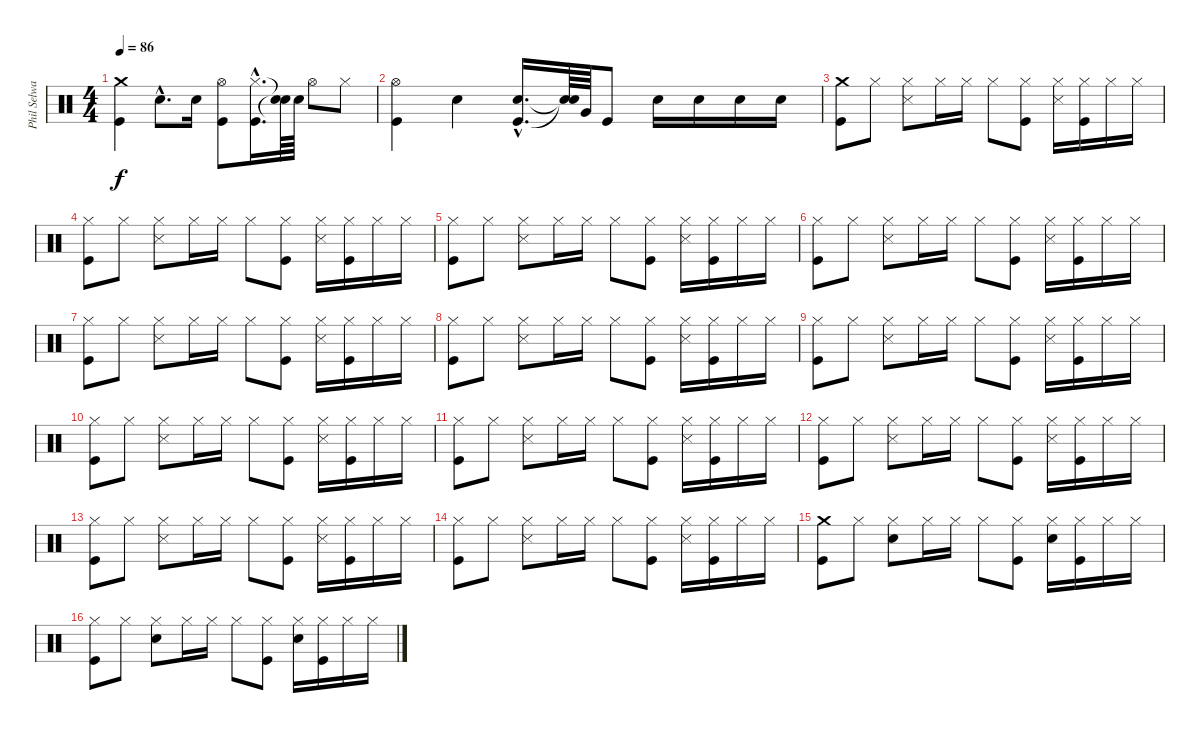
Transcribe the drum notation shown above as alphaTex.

\track ("Phil Selway" "Phil Selwa") {instrument percussion}
\staff {score}
\articulation defaults
\ts (4 4)
\tempo 86
\clef neutral
\ks c
("Kick (hit)" "Crash medium (hit)").4{dy f} "Electric Snare (hit)"{hac}.8{d} "Electric Snare (hit)".16 ("Kick (hit)" "Hi-Hat (open)").8 ("Kick (hit)"{hac} "Hi-Hat (closed)"{hac}).16{d} ("Snare (hit)"{t} "Snare (hit)"{t}).64 "Electric Snare (hit)".64 "Hi-Hat (open)".8 "Hi-Hat (closed)".8 |
("Kick (hit)" "Hi-Hat (open)").4 "Electric Snare (hit)".4 ("Kick (hit)"{hac} "Electric Snare (hit)"{hac}).16{d} ("Snare (hit)"{t} "Snare (hit)"{t}).64 "Very Low Tom (hit)".64 "Kick (hit)".8 "Electric Snare (hit)".16 "Electric Snare (hit)".16 "Electric Snare (hit)".16 "Electric Snare (hit)".16 |
("Kick (hit)" "Crash medium (hit)").8 "Hi-Hat (closed)".8 ("Hi-Hat (closed)" "Snare (side stick) 3").8 "Hi-Hat (closed)".16 "Hi-Hat (closed)".16 "Hi-Hat (closed)".8 ("Kick (hit)" "Hi-Hat (closed)").8 ("Hi-Hat (closed)" "Snare (side stick) 3").16 ("Kick (hit)" "Hi-Hat (closed)").16 "Hi-Hat (closed)".16 "Hi-Hat (closed)".16 |
("Kick (hit)" "Hi-Hat (closed)").8 "Hi-Hat (closed)".8 ("Hi-Hat (closed)" "Snare (side stick) 3").8 "Hi-Hat (closed)".16 "Hi-Hat (closed)".16 "Hi-Hat (closed)".8 ("Kick (hit)" "Hi-Hat (closed)").8 ("Hi-Hat (closed)" "Snare (side stick) 3").16 ("Kick (hit)" "Hi-Hat (closed)").16 "Hi-Hat (closed)".16 "Hi-Hat (closed)".16 |
("Kick (hit)" "Hi-Hat (closed)").8 "Hi-Hat (closed)".8 ("Hi-Hat (closed)" "Snare (side stick) 3").8 "Hi-Hat (closed)".16 "Hi-Hat (closed)".16 "Hi-Hat (closed)".8 ("Kick (hit)" "Hi-Hat (closed)").8 ("Hi-Hat (closed)" "Snare (side stick) 3").16 ("Kick (hit)" "Hi-Hat (closed)").16 "Hi-Hat (closed)".16 "Hi-Hat (closed)".16 |
("Kick (hit)" "Hi-Hat (closed)").8 "Hi-Hat (closed)".8 ("Hi-Hat (closed)" "Snare (side stick) 3").8 "Hi-Hat (closed)".16 "Hi-Hat (closed)".16 "Hi-Hat (closed)".8 ("Kick (hit)" "Hi-Hat (closed)").8 ("Hi-Hat (closed)" "Snare (side stick) 3").16 ("Kick (hit)" "Hi-Hat (closed)").16 "Hi-Hat (closed)".16 "Hi-Hat (closed)".16 |
("Kick (hit)" "Hi-Hat (closed)").8 "Hi-Hat (closed)".8 ("Hi-Hat (closed)" "Snare (side stick) 3").8 "Hi-Hat (closed)".16 "Hi-Hat (closed)".16 "Hi-Hat (closed)".8 ("Kick (hit)" "Hi-Hat (closed)").8 ("Hi-Hat (closed)" "Snare (side stick) 3").16 ("Kick (hit)" "Hi-Hat (closed)").16 "Hi-Hat (closed)".16 "Hi-Hat (closed)".16 |
("Kick (hit)" "Hi-Hat (closed)").8 "Hi-Hat (closed)".8 ("Hi-Hat (closed)" "Snare (side stick) 3").8 "Hi-Hat (closed)".16 "Hi-Hat (closed)".16 "Hi-Hat (closed)".8 ("Kick (hit)" "Hi-Hat (closed)").8 ("Hi-Hat (closed)" "Snare (side stick) 3").16 ("Kick (hit)" "Hi-Hat (closed)").16 "Hi-Hat (closed)".16 "Hi-Hat (closed)".16 |
("Kick (hit)" "Hi-Hat (closed)").8 "Hi-Hat (closed)".8 ("Hi-Hat (closed)" "Snare (side stick) 3").8 "Hi-Hat (closed)".16 "Hi-Hat (closed)".16 "Hi-Hat (closed)".8 ("Kick (hit)" "Hi-Hat (closed)").8 ("Hi-Hat (closed)" "Snare (side stick) 3").16 ("Kick (hit)" "Hi-Hat (closed)").16 "Hi-Hat (closed)".16 "Hi-Hat (closed)".16 |
("Kick (hit)" "Hi-Hat (closed)").8 "Hi-Hat (closed)".8 ("Hi-Hat (closed)" "Snare (side stick) 3").8 "Hi-Hat (closed)".16 "Hi-Hat (closed)".16 "Hi-Hat (closed)".8 ("Kick (hit)" "Hi-Hat (closed)").8 ("Hi-Hat (closed)" "Snare (side stick) 3").16 ("Kick (hit)" "Hi-Hat (closed)").16 "Hi-Hat (closed)".16 "Hi-Hat (closed)".16 |
("Kick (hit)" "Hi-Hat (closed)").8 "Hi-Hat (closed)".8 ("Hi-Hat (closed)" "Snare (side stick) 3").8 "Hi-Hat (closed)".16 "Hi-Hat (closed)".16 "Hi-Hat (closed)".8 ("Kick (hit)" "Hi-Hat (closed)").8 ("Hi-Hat (closed)" "Snare (side stick) 3").16 ("Kick (hit)" "Hi-Hat (closed)").16 "Hi-Hat (closed)".16 "Hi-Hat (closed)".16 |
("Kick (hit)" "Hi-Hat (closed)").8 "Hi-Hat (closed)".8 ("Hi-Hat (closed)" "Snare (side stick) 3").8 "Hi-Hat (closed)".16 "Hi-Hat (closed)".16 "Hi-Hat (closed)".8 ("Kick (hit)" "Hi-Hat (closed)").8 ("Hi-Hat (closed)" "Snare (side stick) 3").16 ("Kick (hit)" "Hi-Hat (closed)").16 "Hi-Hat (closed)".16 "Hi-Hat (closed)".16 |
("Kick (hit)" "Hi-Hat (closed)").8 "Hi-Hat (closed)".8 ("Hi-Hat (closed)" "Snare (side stick) 3").8 "Hi-Hat (closed)".16 "Hi-Hat (closed)".16 "Hi-Hat (closed)".8 ("Kick (hit)" "Hi-Hat (closed)").8 ("Hi-Hat (closed)" "Snare (side stick) 3").16 ("Kick (hit)" "Hi-Hat (closed)").16 "Hi-Hat (closed)".16 "Hi-Hat (closed)".16 |
("Kick (hit)" "Hi-Hat (closed)").8 "Hi-Hat (closed)".8 ("Hi-Hat (closed)" "Snare (side stick) 3").8 "Hi-Hat (closed)".16 "Hi-Hat (closed)".16 "Hi-Hat (closed)".8 ("Kick (hit)" "Hi-Hat (closed)").8 ("Hi-Hat (closed)" "Snare (side stick) 3").16 ("Kick (hit)" "Hi-Hat (closed)").16 "Hi-Hat (closed)".16 "Hi-Hat (closed)".16 |
("Kick (hit)" "Crash medium (hit)").8 "Hi-Hat (closed)".8 ("Hi-Hat (closed)" "Electric Snare (hit)").8 "Hi-Hat (closed)".16 "Hi-Hat (closed)".16 "Hi-Hat (closed)".8 ("Kick (hit)" "Hi-Hat (closed)").8 ("Hi-Hat (closed)" "Electric Snare (hit)").16 ("Kick (hit)" "Hi-Hat (closed)").16 "Hi-Hat (closed)".16 "Hi-Hat (closed)".16 |
("Kick (hit)" "Hi-Hat (closed)").8 "Hi-Hat (closed)".8 ("Hi-Hat (closed)" "Electric Snare (hit)").8 "Hi-Hat (closed)".16 "Hi-Hat (closed)".16 "Hi-Hat (closed)".8 ("Kick (hit)" "Hi-Hat (closed)").8 ("Hi-Hat (closed)" "Electric Snare (hit)").16 ("Kick (hit)" "Hi-Hat (closed)").16 "Hi-Hat (closed)".16 "Hi-Hat (closed)".16
